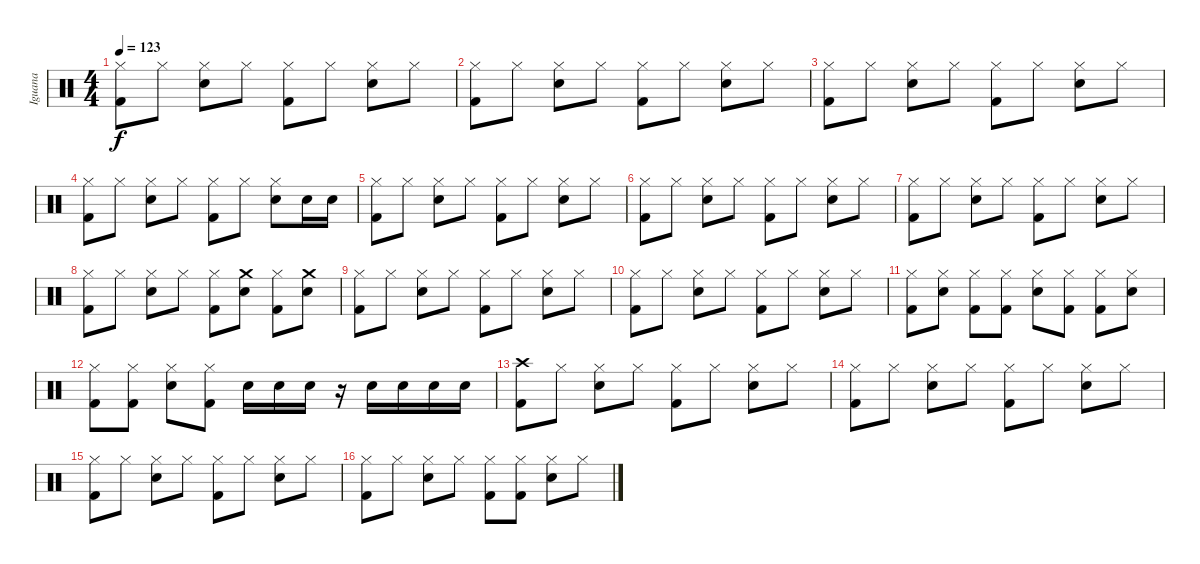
\track ("Iguana" "Iguana") {instrument percussion}
\staff {score}
\articulation defaults
\ts (4 4)
\tempo 123
\clef neutral
\ks c
("Hi-Hat (closed)" "Kick (hit) 2").8{dy f} "Hi-Hat (closed)".8 ("Hi-Hat (closed)" "Snare (hit) 2").8 "Hi-Hat (closed)".8 ("Hi-Hat (closed)" "Kick (hit) 2").8 "Hi-Hat (closed)".8 ("Hi-Hat (closed)" "Snare (hit) 2").8 "Hi-Hat (closed)".8 |
("Hi-Hat (closed)" "Kick (hit) 2").8 "Hi-Hat (closed)".8 ("Hi-Hat (closed)" "Snare (hit) 2").8 "Hi-Hat (closed)".8 ("Hi-Hat (closed)" "Kick (hit) 2").8 "Hi-Hat (closed)".8 ("Hi-Hat (closed)" "Snare (hit) 2").8 "Hi-Hat (closed)".8 |
("Hi-Hat (closed)" "Kick (hit) 2").8 "Hi-Hat (closed)".8 ("Hi-Hat (closed)" "Snare (hit) 2").8 "Hi-Hat (closed)".8 ("Hi-Hat (closed)" "Kick (hit) 2").8 "Hi-Hat (closed)".8 ("Hi-Hat (closed)" "Snare (hit) 2").8 "Hi-Hat (closed)".8 |
("Hi-Hat (closed)" "Kick (hit) 2").8 "Hi-Hat (closed)".8 ("Hi-Hat (closed)" "Snare (hit) 2").8 "Hi-Hat (closed)".8 ("Hi-Hat (closed)" "Kick (hit) 2").8 "Hi-Hat (closed)".8 ("Hi-Hat (closed)" "Snare (hit) 2").8 "Snare (hit) 2".16 "Snare (hit) 2".16 |
("Hi-Hat (closed)" "Kick (hit) 2").8 "Hi-Hat (closed)".8 ("Hi-Hat (closed)" "Snare (hit) 2").8 "Hi-Hat (closed)".8 ("Hi-Hat (closed)" "Kick (hit) 2").8 "Hi-Hat (closed)".8 ("Hi-Hat (closed)" "Snare (hit) 2").8 "Hi-Hat (closed)".8 |
("Hi-Hat (closed)" "Kick (hit) 2").8 "Hi-Hat (closed)".8 ("Hi-Hat (closed)" "Snare (hit) 2").8 "Hi-Hat (closed)".8 ("Hi-Hat (closed)" "Kick (hit) 2").8 "Hi-Hat (closed)".8 ("Hi-Hat (closed)" "Snare (hit) 2").8 "Hi-Hat (closed)".8 |
("Hi-Hat (closed)" "Kick (hit) 2").8 "Hi-Hat (closed)".8 ("Hi-Hat (closed)" "Snare (hit) 2").8 "Hi-Hat (closed)".8 ("Hi-Hat (closed)" "Kick (hit) 2").8 "Hi-Hat (closed)".8 ("Hi-Hat (closed)" "Snare (hit) 2").8 "Hi-Hat (closed)".8 |
("Hi-Hat (closed)" "Kick (hit) 2").8 "Hi-Hat (closed)".8 ("Hi-Hat (closed)" "Snare (hit) 2").8 "Hi-Hat (closed)".8 ("Hi-Hat (closed)" "Kick (hit) 2").8 ("Crash medium (hit)" "Snare (hit) 2").8 ("Hi-Hat (closed)" "Kick (hit) 2").8 ("Crash medium (hit)" "Snare (hit) 2").8 |
("Hi-Hat (closed)" "Kick (hit) 2").8 "Hi-Hat (closed)".8 ("Hi-Hat (closed)" "Snare (hit) 2").8 "Hi-Hat (closed)".8 ("Hi-Hat (closed)" "Kick (hit) 2").8 "Hi-Hat (closed)".8 ("Hi-Hat (closed)" "Snare (hit) 2").8 "Hi-Hat (closed)".8 |
("Hi-Hat (closed)" "Kick (hit) 2").8 "Hi-Hat (closed)".8 ("Hi-Hat (closed)" "Snare (hit) 2").8 "Hi-Hat (closed)".8 ("Hi-Hat (closed)" "Kick (hit) 2").8 "Hi-Hat (closed)".8 ("Hi-Hat (closed)" "Snare (hit) 2").8 "Hi-Hat (closed)".8 |
("Hi-Hat (closed)" "Kick (hit) 2").8 ("Hi-Hat (closed)" "Snare (hit) 2").8 ("Hi-Hat (closed)" "Kick (hit) 2").8 ("Hi-Hat (closed)" "Kick (hit) 2").8 ("Hi-Hat (closed)" "Snare (hit) 2").8 ("Hi-Hat (closed)" "Kick (hit) 2").8 ("Hi-Hat (closed)" "Kick (hit) 2").8 ("Hi-Hat (closed)" "Snare (hit) 2").8 |
("Hi-Hat (closed)" "Kick (hit) 2").8 ("Hi-Hat (closed)" "Kick (hit) 2").8 ("Hi-Hat (closed)" "Snare (hit) 2").8 ("Hi-Hat (closed)" "Kick (hit) 2").8 "Snare (hit) 2".16 "Snare (hit) 2".16 "Snare (hit) 2".16 r.16 "Snare (hit) 2".16 "Snare (hit) 2".16 "Snare (hit) 2".16 "Snare (hit) 2".16 |
("Crash high (hit)" "Kick (hit) 2").8 "Hi-Hat (closed)".8 ("Hi-Hat (closed)" "Snare (hit) 2").8 "Hi-Hat (closed)".8 ("Hi-Hat (closed)" "Kick (hit) 2").8 "Hi-Hat (closed)".8 ("Hi-Hat (closed)" "Snare (hit) 2").8 "Hi-Hat (closed)".8 |
("Hi-Hat (closed)" "Kick (hit) 2").8 "Hi-Hat (closed)".8 ("Hi-Hat (closed)" "Snare (hit) 2").8 "Hi-Hat (closed)".8 ("Hi-Hat (closed)" "Kick (hit) 2").8 "Hi-Hat (closed)".8 ("Hi-Hat (closed)" "Snare (hit) 2").8 "Hi-Hat (closed)".8 |
("Hi-Hat (closed)" "Kick (hit) 2").8 "Hi-Hat (closed)".8 ("Hi-Hat (closed)" "Snare (hit) 2").8 "Hi-Hat (closed)".8 ("Hi-Hat (closed)" "Kick (hit) 2").8 "Hi-Hat (closed)".8 ("Hi-Hat (closed)" "Snare (hit) 2").8 "Hi-Hat (closed)".8 |
("Hi-Hat (closed)" "Kick (hit) 2").8 "Hi-Hat (closed)".8 ("Hi-Hat (closed)" "Snare (hit) 2").8 "Hi-Hat (closed)".8 ("Hi-Hat (closed)" "Kick (hit) 2").8 ("Hi-Hat (closed)" "Kick (hit) 2").8 ("Hi-Hat (closed)" "Snare (hit) 2").8 "Hi-Hat (closed)".8
